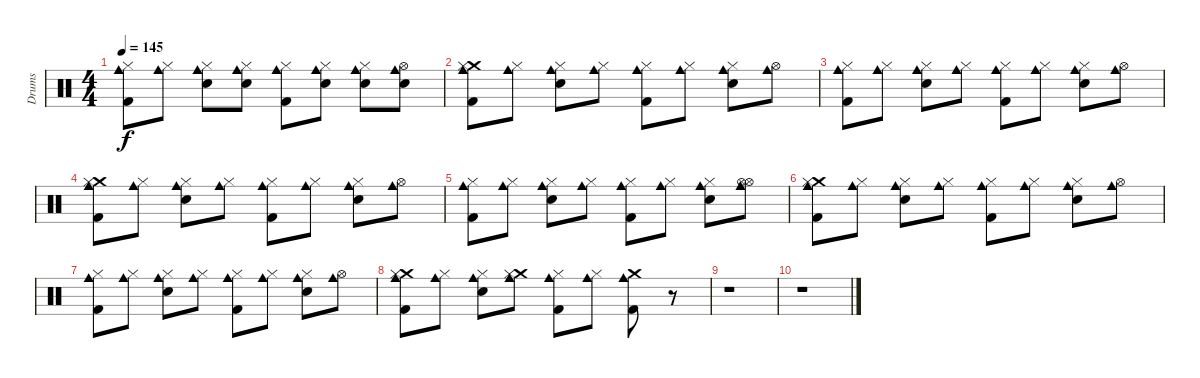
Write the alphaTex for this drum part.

\track ("Drums" "Drums") {instrument percussion}
\staff {score}
\articulation defaults
\ts (4 4)
\tempo 145
\clef neutral
\ks c
("Cowbell medium (hit)" "Hi-Hat (closed)" "Kick (hit) 2").8{dy f} ("Cowbell medium (hit)" "Hi-Hat (closed)").8 ("Cowbell medium (hit)" "Hi-Hat (closed)" "Electric Snare (hit)").8 ("Cowbell medium (hit)" "Hi-Hat (closed)" "Electric Snare (hit)").8 ("Cowbell medium (hit)" "Hi-Hat (closed)" "Kick (hit) 2").8 ("Cowbell medium (hit)" "Hi-Hat (closed)" "Electric Snare (hit)").8 ("Cowbell medium (hit)" "Hi-Hat (closed)" "Electric Snare (hit)").8 ("Cowbell medium (hit)" "Hi-Hat (open)" "Electric Snare (hit)").8 |
("Crash medium (hit)" "Cowbell medium (hit)" "Hi-Hat (closed)" "Kick (hit) 2").8 ("Cowbell medium (hit)" "Hi-Hat (closed)").8 ("Cowbell medium (hit)" "Hi-Hat (closed)" "Electric Snare (hit)").8 ("Cowbell medium (hit)" "Hi-Hat (closed)").8 ("Cowbell medium (hit)" "Hi-Hat (closed)" "Kick (hit) 2").8 ("Cowbell medium (hit)" "Hi-Hat (closed)").8 ("Cowbell medium (hit)" "Hi-Hat (closed)" "Electric Snare (hit)").8 ("Cowbell medium (hit)" "Hi-Hat (open)").8 |
("Cowbell medium (hit)" "Hi-Hat (closed)" "Kick (hit) 2").8 ("Cowbell medium (hit)" "Hi-Hat (closed)").8 ("Cowbell medium (hit)" "Hi-Hat (closed)" "Electric Snare (hit)").8 ("Cowbell medium (hit)" "Hi-Hat (closed)").8 ("Cowbell medium (hit)" "Hi-Hat (closed)" "Kick (hit) 2").8 ("Cowbell medium (hit)" "Hi-Hat (closed)").8 ("Cowbell medium (hit)" "Hi-Hat (closed)" "Electric Snare (hit)").8 ("Cowbell medium (hit)" "Hi-Hat (open)").8 |
("Crash medium (hit)" "Cowbell medium (hit)" "Hi-Hat (closed)" "Kick (hit) 2").8 ("Cowbell medium (hit)" "Hi-Hat (closed)").8 ("Cowbell medium (hit)" "Hi-Hat (closed)" "Electric Snare (hit)").8 ("Cowbell medium (hit)" "Hi-Hat (closed)").8 ("Cowbell medium (hit)" "Hi-Hat (closed)" "Kick (hit) 2").8 ("Cowbell medium (hit)" "Hi-Hat (closed)").8 ("Cowbell medium (hit)" "Hi-Hat (closed)" "Electric Snare (hit)").8 ("Cowbell medium (hit)" "Hi-Hat (open)").8 |
("Cowbell medium (hit)" "Hi-Hat (closed)" "Kick (hit) 2").8 ("Cowbell medium (hit)" "Hi-Hat (closed)").8 ("Cowbell medium (hit)" "Hi-Hat (closed)" "Electric Snare (hit)").8 ("Cowbell medium (hit)" "Hi-Hat (closed)").8 ("Cowbell medium (hit)" "Hi-Hat (closed)" "Kick (hit) 2").8 ("Cowbell medium (hit)" "Hi-Hat (closed)").8 ("Cowbell medium (hit)" "Hi-Hat (closed)" "Electric Snare (hit)").8 ("Hi-Hat (open)" "Cowbell medium (hit)" "Hi-Hat (open)").8 |
("Crash medium (hit)" "Cowbell medium (hit)" "Hi-Hat (closed)" "Kick (hit) 2").8 ("Cowbell medium (hit)" "Hi-Hat (closed)").8 ("Cowbell medium (hit)" "Hi-Hat (closed)" "Electric Snare (hit)").8 ("Cowbell medium (hit)" "Hi-Hat (closed)").8 ("Cowbell medium (hit)" "Hi-Hat (closed)" "Kick (hit) 2").8 ("Cowbell medium (hit)" "Hi-Hat (closed)").8 ("Cowbell medium (hit)" "Hi-Hat (closed)" "Electric Snare (hit)").8 ("Cowbell medium (hit)" "Hi-Hat (open)").8 |
("Cowbell medium (hit)" "Hi-Hat (closed)" "Kick (hit) 2").8 ("Cowbell medium (hit)" "Hi-Hat (closed)").8 ("Cowbell medium (hit)" "Hi-Hat (closed)" "Electric Snare (hit)").8 ("Cowbell medium (hit)" "Hi-Hat (closed)").8 ("Cowbell medium (hit)" "Hi-Hat (closed)" "Kick (hit) 2").8 ("Cowbell medium (hit)" "Hi-Hat (closed)").8 ("Cowbell medium (hit)" "Hi-Hat (closed)" "Electric Snare (hit)").8 ("Cowbell medium (hit)" "Hi-Hat (open)").8 |
("Crash medium (hit)" "Cowbell medium (hit)" "Hi-Hat (closed)" "Kick (hit) 2").8 ("Cowbell medium (hit)" "Hi-Hat (closed)").8 ("Cowbell medium (hit)" "Hi-Hat (closed)" "Electric Snare (hit)").8 ("Crash medium (hit)" "Cowbell medium (hit)" "Hi-Hat (closed)").8 ("Cowbell medium (hit)" "Hi-Hat (closed)" "Kick (hit) 2").8 ("Cowbell medium (hit)" "Hi-Hat (closed)").8 ("Crash medium (hit)" "Cowbell medium (hit)" "Kick (hit) 2").8 r.8 |
r.1 |
r.1
